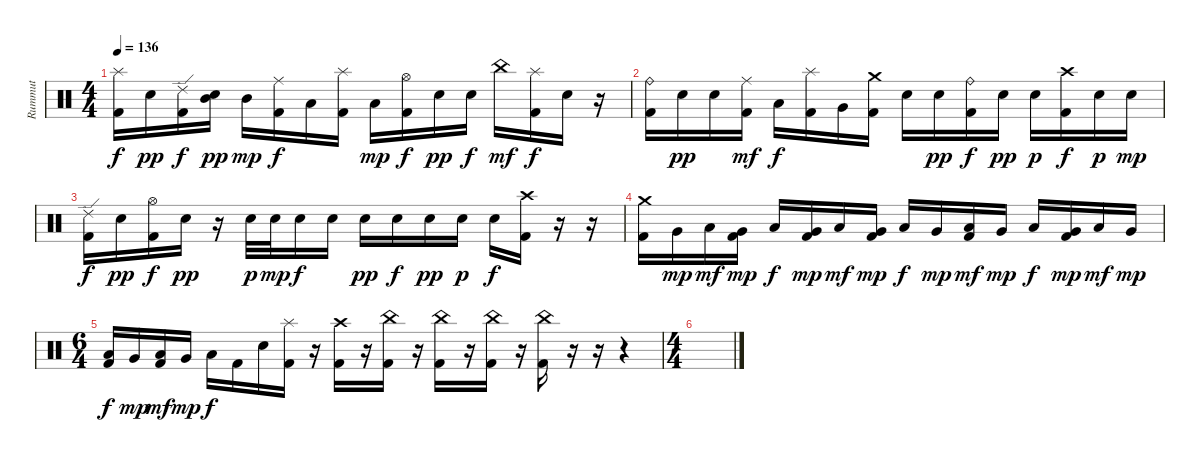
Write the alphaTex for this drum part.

\track ("Rummut" "Rummut") {instrument percussion}
\staff {score}
\articulation defaults
\ts (4 4)
\tempo 136
\clef neutral
\ks c
("Splash (hit)" "Kick (hit) 2").16{dy f} "Electric Snare (hit)".16{dy pp} ("Ride (edge) 2" "Kick (hit) 2").16{dy f} ("Mid Tom (hit)" "Electric Snare (hit)").16{dy pp} "Mid Tom (hit)".16{dy mp} ("Ride (middle)" "Kick (hit) 2").16{dy f} "Low Tom (hit)".16 ("Splash (hit)" "Kick (hit) 2").16 "Low Tom (hit)".16{dy mp} ("Hi-Hat (open)" "Kick (hit) 2").16{dy f} "Electric Snare (hit)".16{dy pp} "Electric Snare (hit)".16{dy f} "China (hit)".16{dy mf} ("Splash (hit)" "Kick (hit) 2").16{dy f} "Electric Snare (hit)".16 r.16 |
("Ride (bell)" "Kick (hit) 2").16 "Electric Snare (hit)".16{dy pp} "Electric Snare (hit)".16 ("Ride (middle)" "Kick (hit) 2").16{dy mf} "Low Tom (hit)".16{dy f} ("Splash (hit)" "Kick (hit) 2").16 "Very Low Tom (hit)".16 ("Crash medium (hit)" "Kick (hit) 2").16 "Electric Snare (hit)".16 "Electric Snare (hit)".16{dy pp} ("Ride (bell)" "Kick (hit) 2").16{dy f} "Electric Snare (hit)".16{dy pp} "Electric Snare (hit)".16{dy p} ("Crash high (hit)" "Kick (hit) 2").16{dy f} "Electric Snare (hit)".16{dy p} "Electric Snare (hit)".16{dy mp} |
("Ride (edge) 2" "Kick (hit) 2").16{dy f} "Electric Snare (hit)".16{dy pp} ("Hi-Hat (open)" "Kick (hit) 2").16{dy f} "Electric Snare (hit)".16{dy pp} r.16 "Electric Snare (hit)".32{dy p} "Electric Snare (hit)".32{dy mp} "Electric Snare (hit)".16{dy f} "Electric Snare (hit)".16 "Electric Snare (hit)".16{dy pp} "Electric Snare (hit)".16{dy f} "Electric Snare (hit)".16{dy pp} "Electric Snare (hit)".16{dy p} "Electric Snare (hit)".16{dy f} ("Crash high (hit)" "Kick (hit) 2").16 r.16 r.16 |
("Crash medium (hit)" "Kick (hit) 2").16 "Very Low Tom (hit)".16{dy mp} "Low Floor Tom (hit)".16{dy mf} ("Very Low Tom (hit)" "Kick (hit) 2").16{dy mp} "Low Floor Tom (hit)".16{dy f} ("Very Low Tom (hit)" "Kick (hit) 2").16{dy mp} "Low Floor Tom (hit)".16{dy mf} ("Very Low Tom (hit)" "Kick (hit) 2").16{dy mp} "Low Floor Tom (hit)".16{dy f} "Very Low Tom (hit)".16{dy mp} ("Low Floor Tom (hit)" "Kick (hit) 2").16{dy mf} "Very Low Tom (hit)".16{dy mp} "Low Floor Tom (hit)".16{dy f} ("Very Low Tom (hit)" "Kick (hit) 2").16{dy mp} "Low Floor Tom (hit)".16{dy mf} "Very Low Tom (hit)".16{dy mp} |
\ts (6 4)
("Low Floor Tom (hit)" "Kick (hit) 2").16{dy f} "Very Low Tom (hit)".16{dy mp} ("Low Floor Tom (hit)" "Kick (hit) 2").16{dy mf} "Very Low Tom (hit)".16{dy mp} "Low Floor Tom (hit)".16{dy f} "Kick (hit) 2".16 "Electric Snare (hit)".16 ("Splash (hit)" "Kick (hit) 2").16 r.16 ("Crash high (hit)" "Kick (hit) 2").16 r.16 ("China (hit)" "Kick (hit) 2").16 r.16 ("China (hit)" "Kick (hit) 2").16 r.16 ("China (hit)" "Kick (hit) 2").16 r.16 ("China (hit)" "Kick (hit) 2").16 r.16 r.16 r.4 |
\ts (4 4)
